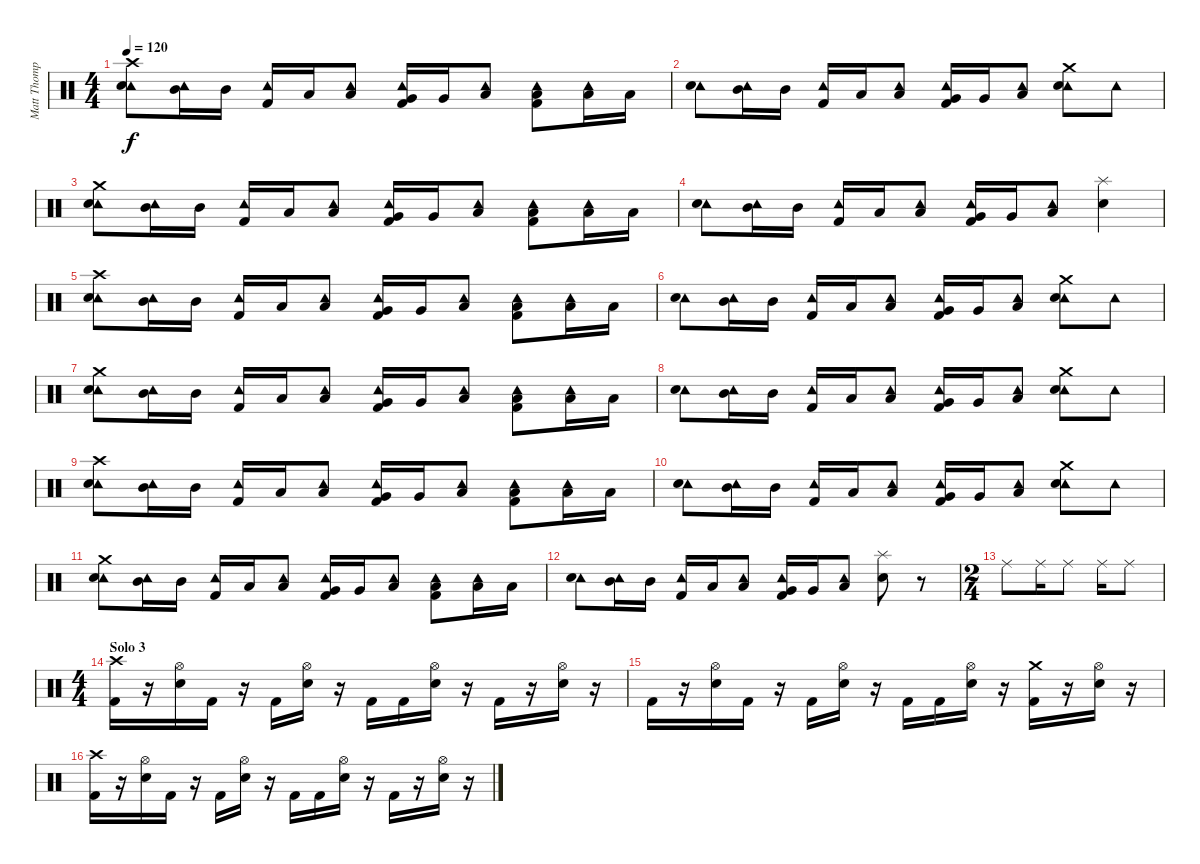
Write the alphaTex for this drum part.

\track ("Matt Thompson" "Matt Thomp") {instrument percussion}
\staff {score}
\articulation defaults
\ts (4 4)
\tempo 120
\clef neutral
\ks c
("Crash high (hit)" "Tambourine (hit)" "Snare (hit) 2").8{dy f} ("Mid Tom (hit)" "Tambourine (hit)").16 "Mid Tom (hit)".16 ("Tambourine (hit)" "Kick (hit) 2").16 "Low Tom (hit)".16 ("Low Tom (hit)" "Tambourine (hit)").8 ("Very Low Tom (hit)" "Tambourine (hit)" "Kick (hit) 2").16 "Very Low Tom (hit)".16 ("Low Floor Tom (hit)" "Tambourine (hit)").8 ("Low Floor Tom (hit)" "Tambourine (hit)" "Kick (hit) 2").8 ("Low Floor Tom (hit)" "Tambourine (hit)").16 "Low Floor Tom (hit)".16 |
("Tambourine (hit)" "Snare (hit) 2").8 ("Mid Tom (hit)" "Tambourine (hit)").16 "Mid Tom (hit)".16 ("Tambourine (hit)" "Kick (hit) 2").16 "Low Tom (hit)".16 ("Low Tom (hit)" "Tambourine (hit)").8 ("Very Low Tom (hit)" "Tambourine (hit)" "Kick (hit) 2").16 "Very Low Tom (hit)".16 ("Low Floor Tom (hit)" "Tambourine (hit)").8 ("Crash medium (hit)" "Tambourine (hit)" "Snare (hit) 2").8 "Tambourine (hit)".8 |
("Crash medium (hit)" "Tambourine (hit)" "Snare (hit) 2").8 ("Mid Tom (hit)" "Tambourine (hit)").16 "Mid Tom (hit)".16 ("Tambourine (hit)" "Kick (hit) 2").16 "Low Tom (hit)".16 ("Low Tom (hit)" "Tambourine (hit)").8 ("Very Low Tom (hit)" "Tambourine (hit)" "Kick (hit) 2").16 "Very Low Tom (hit)".16 ("Low Floor Tom (hit)" "Tambourine (hit)").8 ("Low Floor Tom (hit)" "Tambourine (hit)" "Kick (hit) 2").8 ("Low Floor Tom (hit)" "Tambourine (hit)").16 "Low Floor Tom (hit)".16 |
("Tambourine (hit)" "Snare (hit) 2").8 ("Mid Tom (hit)" "Tambourine (hit)").16 "Mid Tom (hit)".16 ("Tambourine (hit)" "Kick (hit) 2").16 "Low Tom (hit)".16 ("Low Tom (hit)" "Tambourine (hit)").8 ("Very Low Tom (hit)" "Tambourine (hit)" "Kick (hit) 2").16 "Very Low Tom (hit)".16 ("Low Floor Tom (hit)" "Tambourine (hit)").8 ("Splash (hit)" "Snare (hit) 2").4 |
("Crash high (hit)" "Tambourine (hit)" "Snare (hit) 2").8 ("Mid Tom (hit)" "Tambourine (hit)").16 "Mid Tom (hit)".16 ("Tambourine (hit)" "Kick (hit) 2").16 "Low Tom (hit)".16 ("Low Tom (hit)" "Tambourine (hit)").8 ("Very Low Tom (hit)" "Tambourine (hit)" "Kick (hit) 2").16 "Very Low Tom (hit)".16 ("Low Floor Tom (hit)" "Tambourine (hit)").8 ("Low Floor Tom (hit)" "Tambourine (hit)" "Kick (hit) 2").8 ("Low Floor Tom (hit)" "Tambourine (hit)").16 "Low Floor Tom (hit)".16 |
("Tambourine (hit)" "Snare (hit) 2").8 ("Mid Tom (hit)" "Tambourine (hit)").16 "Mid Tom (hit)".16 ("Tambourine (hit)" "Kick (hit) 2").16 "Low Tom (hit)".16 ("Low Tom (hit)" "Tambourine (hit)").8 ("Very Low Tom (hit)" "Tambourine (hit)" "Kick (hit) 2").16 "Very Low Tom (hit)".16 ("Low Floor Tom (hit)" "Tambourine (hit)").8 ("Crash medium (hit)" "Tambourine (hit)" "Snare (hit) 2").8 "Tambourine (hit)".8 |
("Crash medium (hit)" "Tambourine (hit)" "Snare (hit) 2").8 ("Mid Tom (hit)" "Tambourine (hit)").16 "Mid Tom (hit)".16 ("Tambourine (hit)" "Kick (hit) 2").16 "Low Tom (hit)".16 ("Low Tom (hit)" "Tambourine (hit)").8 ("Very Low Tom (hit)" "Tambourine (hit)" "Kick (hit) 2").16 "Very Low Tom (hit)".16 ("Low Floor Tom (hit)" "Tambourine (hit)").8 ("Low Floor Tom (hit)" "Tambourine (hit)" "Kick (hit) 2").8 ("Low Floor Tom (hit)" "Tambourine (hit)").16 "Low Floor Tom (hit)".16 |
("Tambourine (hit)" "Snare (hit) 2").8 ("Mid Tom (hit)" "Tambourine (hit)").16 "Mid Tom (hit)".16 ("Tambourine (hit)" "Kick (hit) 2").16 "Low Tom (hit)".16 ("Low Tom (hit)" "Tambourine (hit)").8 ("Very Low Tom (hit)" "Tambourine (hit)" "Kick (hit) 2").16 "Very Low Tom (hit)".16 ("Low Floor Tom (hit)" "Tambourine (hit)").8 ("Crash medium (hit)" "Tambourine (hit)" "Snare (hit) 2").8 "Tambourine (hit)".8 |
("Crash high (hit)" "Tambourine (hit)" "Snare (hit) 2").8 ("Mid Tom (hit)" "Tambourine (hit)").16 "Mid Tom (hit)".16 ("Tambourine (hit)" "Kick (hit) 2").16 "Low Tom (hit)".16 ("Low Tom (hit)" "Tambourine (hit)").8 ("Very Low Tom (hit)" "Tambourine (hit)" "Kick (hit) 2").16 "Very Low Tom (hit)".16 ("Low Floor Tom (hit)" "Tambourine (hit)").8 ("Low Floor Tom (hit)" "Tambourine (hit)" "Kick (hit) 2").8 ("Low Floor Tom (hit)" "Tambourine (hit)").16 "Low Floor Tom (hit)".16 |
("Tambourine (hit)" "Snare (hit) 2").8 ("Mid Tom (hit)" "Tambourine (hit)").16 "Mid Tom (hit)".16 ("Tambourine (hit)" "Kick (hit) 2").16 "Low Tom (hit)".16 ("Low Tom (hit)" "Tambourine (hit)").8 ("Very Low Tom (hit)" "Tambourine (hit)" "Kick (hit) 2").16 "Very Low Tom (hit)".16 ("Low Floor Tom (hit)" "Tambourine (hit)").8 ("Crash medium (hit)" "Tambourine (hit)" "Snare (hit) 2").8 "Tambourine (hit)".8 |
("Crash medium (hit)" "Tambourine (hit)" "Snare (hit) 2").8 ("Mid Tom (hit)" "Tambourine (hit)").16 "Mid Tom (hit)".16 ("Tambourine (hit)" "Kick (hit) 2").16 "Low Tom (hit)".16 ("Low Tom (hit)" "Tambourine (hit)").8 ("Very Low Tom (hit)" "Tambourine (hit)" "Kick (hit) 2").16 "Very Low Tom (hit)".16 ("Low Floor Tom (hit)" "Tambourine (hit)").8 ("Low Floor Tom (hit)" "Tambourine (hit)" "Kick (hit) 2").8 ("Low Floor Tom (hit)" "Tambourine (hit)").16 "Low Floor Tom (hit)".16 |
("Tambourine (hit)" "Snare (hit) 2").8 ("Mid Tom (hit)" "Tambourine (hit)").16 "Mid Tom (hit)".16 ("Tambourine (hit)" "Kick (hit) 2").16 "Low Tom (hit)".16 ("Low Tom (hit)" "Tambourine (hit)").8 ("Very Low Tom (hit)" "Tambourine (hit)" "Kick (hit) 2").16 "Very Low Tom (hit)".16 ("Low Floor Tom (hit)" "Tambourine (hit)").8 ("Splash (hit)" "Snare (hit) 2").8 r.8 |
\ts (2 4)
"Ride (middle)".8 "Ride (middle)".16 "Ride (middle)".8 "Ride (middle)".16 "Ride (middle)".8 |
\ts (4 4)
\section ("" "Solo 3")
("Crash high (hit)" "Kick (hit) 2").16 r.16 ("Hi-Hat (open)" "Snare (hit) 2").16 "Kick (hit) 2".16 r.16 "Kick (hit) 2".16 ("Hi-Hat (open)" "Snare (hit) 2").16 r.16 "Kick (hit) 2".16 "Kick (hit) 2".16 ("Hi-Hat (open)" "Snare (hit) 2").16 r.16 "Kick (hit) 2".16 r.16 ("Hi-Hat (open)" "Snare (hit) 2").16 r.16 |
"Kick (hit) 2".16 r.16 ("Hi-Hat (open)" "Snare (hit) 2").16 "Kick (hit) 2".16 r.16 "Kick (hit) 2".16 ("Hi-Hat (open)" "Snare (hit) 2").16 r.16 "Kick (hit) 2".16 "Kick (hit) 2".16 ("Hi-Hat (open)" "Snare (hit) 2").16 r.16 ("Crash medium (hit)" "Kick (hit) 2").16 r.16 ("Hi-Hat (open)" "Snare (hit) 2").16 r.16 |
("Crash high (hit)" "Kick (hit) 2").16 r.16 ("Hi-Hat (open)" "Snare (hit) 2").16 "Kick (hit) 2".16 r.16 "Kick (hit) 2".16 ("Hi-Hat (open)" "Snare (hit) 2").16 r.16 "Kick (hit) 2".16 "Kick (hit) 2".16 ("Hi-Hat (open)" "Snare (hit) 2").16 r.16 "Kick (hit) 2".16 r.16 ("Hi-Hat (open)" "Snare (hit) 2").16 r.16
